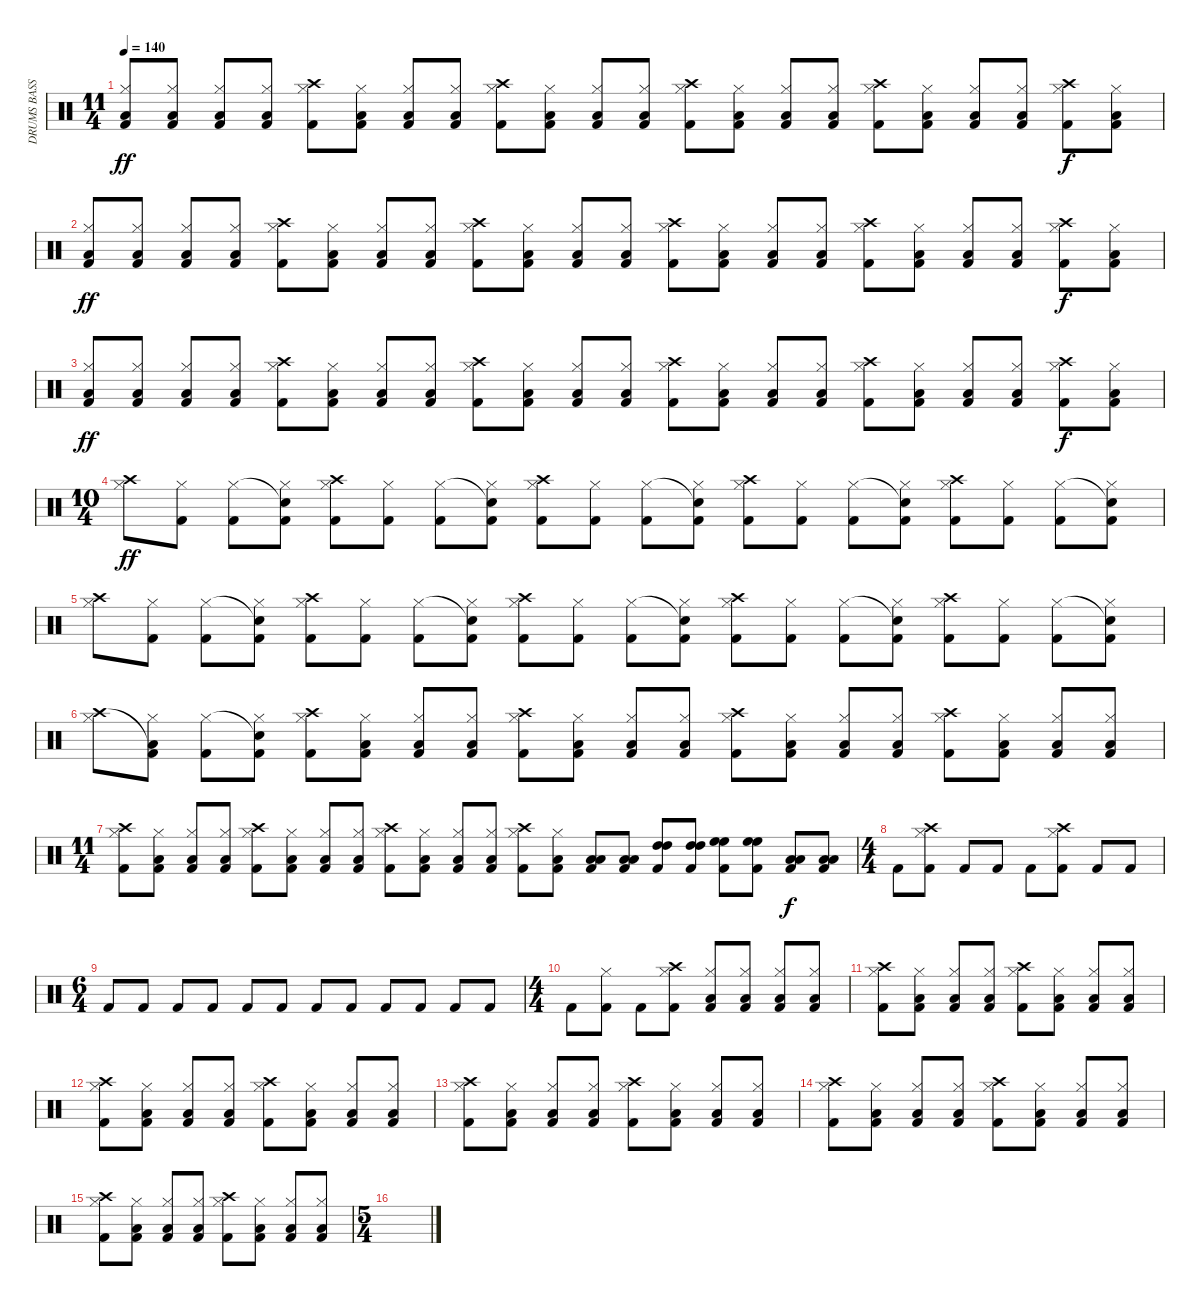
\track ("DRUMS BASS" "DRUMS BASS") {instrument percussion}
\staff {score}
\articulation defaults
\ts (11 4)
\tempo 140
\clef neutral
\ks c
("Low Tom (hit)" "Hi-Hat (closed)" "Kick (hit) 2").8{dy ff} ("Low Tom (hit)" "Hi-Hat (closed)" "Kick (hit) 2").8 ("Low Tom (hit)" "Hi-Hat (closed)" "Kick (hit) 2").8 ("Low Tom (hit)" "Hi-Hat (closed)" "Kick (hit) 2").8 ("Crash high (hit)" "Hi-Hat (closed)" "Kick (hit) 2").8 ("Low Tom (hit)" "Hi-Hat (closed)" "Kick (hit) 2").8 ("Low Tom (hit)" "Hi-Hat (closed)" "Kick (hit) 2").8 ("Low Tom (hit)" "Hi-Hat (closed)" "Kick (hit) 2").8 ("Crash high (hit)" "Hi-Hat (closed)" "Kick (hit) 2").8 ("Low Tom (hit)" "Hi-Hat (closed)" "Kick (hit) 2").8 ("Low Tom (hit)" "Hi-Hat (closed)" "Kick (hit) 2").8 ("Low Tom (hit)" "Hi-Hat (closed)" "Kick (hit) 2").8 ("Crash high (hit)" "Hi-Hat (closed)" "Kick (hit) 2").8 ("Low Tom (hit)" "Hi-Hat (closed)" "Kick (hit) 2").8 ("Low Tom (hit)" "Hi-Hat (closed)" "Kick (hit) 2").8 ("Low Tom (hit)" "Hi-Hat (closed)" "Kick (hit) 2").8 ("Crash high (hit)" "Hi-Hat (closed)" "Kick (hit) 2").8 ("Low Tom (hit)" "Hi-Hat (closed)" "Kick (hit) 2").8 ("Low Tom (hit)" "Hi-Hat (closed)" "Kick (hit) 2").8 ("Low Tom (hit)" "Hi-Hat (closed)" "Kick (hit) 2").8 ("Crash high (hit)" "Hi-Hat (closed)" "Kick (hit) 2").8{dy f} ("Low Tom (hit)" "Hi-Hat (closed)" "Kick (hit) 2").8 |
("Low Tom (hit)" "Hi-Hat (closed)" "Kick (hit) 2").8{dy ff} ("Low Tom (hit)" "Hi-Hat (closed)" "Kick (hit) 2").8 ("Low Tom (hit)" "Hi-Hat (closed)" "Kick (hit) 2").8 ("Low Tom (hit)" "Hi-Hat (closed)" "Kick (hit) 2").8 ("Crash high (hit)" "Hi-Hat (closed)" "Kick (hit) 2").8 ("Low Tom (hit)" "Hi-Hat (closed)" "Kick (hit) 2").8 ("Low Tom (hit)" "Hi-Hat (closed)" "Kick (hit) 2").8 ("Low Tom (hit)" "Hi-Hat (closed)" "Kick (hit) 2").8 ("Crash high (hit)" "Hi-Hat (closed)" "Kick (hit) 2").8 ("Low Tom (hit)" "Hi-Hat (closed)" "Kick (hit) 2").8 ("Low Tom (hit)" "Hi-Hat (closed)" "Kick (hit) 2").8 ("Low Tom (hit)" "Hi-Hat (closed)" "Kick (hit) 2").8 ("Crash high (hit)" "Hi-Hat (closed)" "Kick (hit) 2").8 ("Low Tom (hit)" "Hi-Hat (closed)" "Kick (hit) 2").8 ("Low Tom (hit)" "Hi-Hat (closed)" "Kick (hit) 2").8 ("Low Tom (hit)" "Hi-Hat (closed)" "Kick (hit) 2").8 ("Crash high (hit)" "Hi-Hat (closed)" "Kick (hit) 2").8 ("Low Tom (hit)" "Hi-Hat (closed)" "Kick (hit) 2").8 ("Low Tom (hit)" "Hi-Hat (closed)" "Kick (hit) 2").8 ("Low Tom (hit)" "Hi-Hat (closed)" "Kick (hit) 2").8 ("Crash high (hit)" "Hi-Hat (closed)" "Kick (hit) 2").8{dy f} ("Low Tom (hit)" "Hi-Hat (closed)" "Kick (hit) 2").8 |
("Low Tom (hit)" "Hi-Hat (closed)" "Kick (hit) 2").8{dy ff} ("Low Tom (hit)" "Hi-Hat (closed)" "Kick (hit) 2").8 ("Low Tom (hit)" "Hi-Hat (closed)" "Kick (hit) 2").8 ("Low Tom (hit)" "Hi-Hat (closed)" "Kick (hit) 2").8 ("Crash high (hit)" "Hi-Hat (closed)" "Kick (hit) 2").8 ("Low Tom (hit)" "Hi-Hat (closed)" "Kick (hit) 2").8 ("Low Tom (hit)" "Hi-Hat (closed)" "Kick (hit) 2").8 ("Low Tom (hit)" "Hi-Hat (closed)" "Kick (hit) 2").8 ("Crash high (hit)" "Hi-Hat (closed)" "Kick (hit) 2").8 ("Low Tom (hit)" "Hi-Hat (closed)" "Kick (hit) 2").8 ("Low Tom (hit)" "Hi-Hat (closed)" "Kick (hit) 2").8 ("Low Tom (hit)" "Hi-Hat (closed)" "Kick (hit) 2").8 ("Crash high (hit)" "Hi-Hat (closed)" "Kick (hit) 2").8 ("Low Tom (hit)" "Hi-Hat (closed)" "Kick (hit) 2").8 ("Low Tom (hit)" "Hi-Hat (closed)" "Kick (hit) 2").8 ("Low Tom (hit)" "Hi-Hat (closed)" "Kick (hit) 2").8 ("Crash high (hit)" "Hi-Hat (closed)" "Kick (hit) 2").8 ("Low Tom (hit)" "Hi-Hat (closed)" "Kick (hit) 2").8 ("Low Tom (hit)" "Hi-Hat (closed)" "Kick (hit) 2").8 ("Low Tom (hit)" "Hi-Hat (closed)" "Kick (hit) 2").8 ("Crash high (hit)" "Hi-Hat (closed)" "Kick (hit) 2").8{dy f} ("Low Tom (hit)" "Hi-Hat (closed)" "Kick (hit) 2").8 |
\ts (10 4)
("Crash high (hit)" "Hi-Hat (closed)").8{dy ff} ("Hi-Hat (closed)" "Kick (hit) 2").8 ("Hi-Hat (closed)" "Kick (hit) 2").8 ("Snare (hit)"{t} "Hi-Hat (closed)" "Kick (hit) 2").8 ("Crash high (hit)" "Hi-Hat (closed)" "Kick (hit) 2").8 ("Hi-Hat (closed)" "Kick (hit) 2").8 ("Hi-Hat (closed)" "Kick (hit) 2").8 ("Snare (hit)"{t} "Hi-Hat (closed)" "Kick (hit) 2").8 ("Crash high (hit)" "Hi-Hat (closed)" "Kick (hit) 2").8 ("Hi-Hat (closed)" "Kick (hit) 2").8 ("Hi-Hat (closed)" "Kick (hit) 2").8 ("Snare (hit)"{t} "Hi-Hat (closed)" "Kick (hit) 2").8 ("Crash high (hit)" "Hi-Hat (closed)" "Kick (hit) 2").8 ("Hi-Hat (closed)" "Kick (hit) 2").8 ("Hi-Hat (closed)" "Kick (hit) 2").8 ("Snare (hit)"{t} "Hi-Hat (closed)" "Kick (hit) 2").8 ("Crash high (hit)" "Hi-Hat (closed)" "Kick (hit) 2").8 ("Hi-Hat (closed)" "Kick (hit) 2").8 ("Hi-Hat (closed)" "Kick (hit) 2").8 ("Snare (hit)"{t} "Hi-Hat (closed)" "Kick (hit) 2").8 |
("Crash high (hit)" "Hi-Hat (closed)").8 ("Hi-Hat (closed)" "Kick (hit) 2").8 ("Hi-Hat (closed)" "Kick (hit) 2").8 ("Snare (hit)"{t} "Hi-Hat (closed)" "Kick (hit) 2").8 ("Crash high (hit)" "Hi-Hat (closed)" "Kick (hit) 2").8 ("Hi-Hat (closed)" "Kick (hit) 2").8 ("Hi-Hat (closed)" "Kick (hit) 2").8 ("Snare (hit)"{t} "Hi-Hat (closed)" "Kick (hit) 2").8 ("Crash high (hit)" "Hi-Hat (closed)" "Kick (hit) 2").8 ("Hi-Hat (closed)" "Kick (hit) 2").8 ("Hi-Hat (closed)" "Kick (hit) 2").8 ("Snare (hit)"{t} "Hi-Hat (closed)" "Kick (hit) 2").8 ("Crash high (hit)" "Hi-Hat (closed)" "Kick (hit) 2").8 ("Hi-Hat (closed)" "Kick (hit) 2").8 ("Hi-Hat (closed)" "Kick (hit) 2").8 ("Snare (hit)"{t} "Hi-Hat (closed)" "Kick (hit) 2").8 ("Crash high (hit)" "Hi-Hat (closed)" "Kick (hit) 2").8 ("Hi-Hat (closed)" "Kick (hit) 2").8 ("Hi-Hat (closed)" "Kick (hit) 2").8 ("Snare (hit)"{t} "Hi-Hat (closed)" "Kick (hit) 2").8 |
("Crash high (hit)" "Hi-Hat (closed)").8 ("Low Tom (hit)"{t} "Hi-Hat (closed)" "Kick (hit) 2").8 ("Hi-Hat (closed)" "Kick (hit) 2").8 ("Snare (hit)"{t} "Hi-Hat (closed)" "Kick (hit) 2").8 ("Crash high (hit)" "Hi-Hat (closed)" "Kick (hit) 2").8 ("Low Tom (hit)" "Hi-Hat (closed)" "Kick (hit) 2").8 ("Low Tom (hit)" "Hi-Hat (closed)" "Kick (hit) 2").8 ("Low Tom (hit)" "Hi-Hat (closed)" "Kick (hit) 2").8 ("Crash high (hit)" "Hi-Hat (closed)" "Kick (hit) 2").8 ("Low Tom (hit)" "Hi-Hat (closed)" "Kick (hit) 2").8 ("Low Tom (hit)" "Hi-Hat (closed)" "Kick (hit) 2").8 ("Low Tom (hit)" "Hi-Hat (closed)" "Kick (hit) 2").8 ("Crash high (hit)" "Hi-Hat (closed)" "Kick (hit) 2").8 ("Low Tom (hit)" "Hi-Hat (closed)" "Kick (hit) 2").8 ("Low Tom (hit)" "Hi-Hat (closed)" "Kick (hit) 2").8 ("Low Tom (hit)" "Hi-Hat (closed)" "Kick (hit) 2").8 ("Crash high (hit)" "Hi-Hat (closed)" "Kick (hit) 2").8 ("Low Tom (hit)" "Hi-Hat (closed)" "Kick (hit) 2").8 ("Low Tom (hit)" "Hi-Hat (closed)" "Kick (hit) 2").8 ("Low Tom (hit)" "Hi-Hat (closed)" "Kick (hit) 2").8 |
\ts (11 4)
("Crash high (hit)" "Hi-Hat (closed)" "Kick (hit) 2").8 ("Low Tom (hit)" "Hi-Hat (closed)" "Kick (hit) 2").8 ("Low Tom (hit)" "Hi-Hat (closed)" "Kick (hit) 2").8 ("Low Tom (hit)" "Hi-Hat (closed)" "Kick (hit) 2").8 ("Crash high (hit)" "Hi-Hat (closed)" "Kick (hit) 2").8 ("Low Tom (hit)" "Hi-Hat (closed)" "Kick (hit) 2").8 ("Low Tom (hit)" "Hi-Hat (closed)" "Kick (hit) 2").8 ("Low Tom (hit)" "Hi-Hat (closed)" "Kick (hit) 2").8 ("Crash high (hit)" "Hi-Hat (closed)" "Kick (hit) 2").8 ("Low Tom (hit)" "Hi-Hat (closed)" "Kick (hit) 2").8 ("Low Tom (hit)" "Hi-Hat (closed)" "Kick (hit) 2").8 ("Low Tom (hit)" "Hi-Hat (closed)" "Kick (hit) 2").8 ("Crash high (hit)" "Hi-Hat (closed)" "Kick (hit) 2").8 ("Low Tom (hit)" "Hi-Hat (closed)" "Kick (hit) 2").8 ("Low Tom (hit)" "Low Tom (hit)" "Kick (hit) 2").8 ("Low Tom (hit)" "Low Tom (hit)" "Kick (hit) 2").8 ("High Tom (hit)" "High Tom (hit)" "Kick (hit) 2").8 ("High Tom (hit)" "High Tom (hit)" "Kick (hit) 2").8 ("High Floor Tom (hit)" "High Floor Tom (hit)" "Kick (hit) 2").8 ("High Floor Tom (hit)" "High Floor Tom (hit)" "Kick (hit) 2").8 ("Low Tom (hit)" "Low Tom (hit)" "Kick (hit) 2").8{dy f} ("Low Tom (hit)" "Low Tom (hit)" "Kick (hit) 2").8 |
\ts (4 4)
"Kick (hit) 2".8 ("Crash high (hit)" "Hi-Hat (closed)" "Kick (hit) 2").8 "Kick (hit) 2".8 "Kick (hit) 2".8 "Kick (hit) 2".8 ("Crash high (hit)" "Hi-Hat (closed)" "Kick (hit) 2").8 "Kick (hit) 2".8 "Kick (hit) 2".8 |
\ts (6 4)
"Kick (hit) 2".8 "Kick (hit) 2".8 "Kick (hit) 2".8 "Kick (hit) 2".8 "Kick (hit) 2".8 "Kick (hit) 2".8 "Kick (hit) 2".8 "Kick (hit) 2".8 "Kick (hit) 2".8 "Kick (hit) 2".8 "Kick (hit) 2".8 "Kick (hit) 2".8 |
\ts (4 4)
"Kick (hit) 2".8 ("Hi-Hat (closed)" "Kick (hit) 2").8 "Kick (hit) 2".8 ("Crash high (hit)" "Hi-Hat (closed)" "Kick (hit) 2").8 ("Low Tom (hit)" "Hi-Hat (closed)" "Kick (hit) 2").8 ("Low Tom (hit)" "Hi-Hat (closed)" "Kick (hit) 2").8 ("Low Tom (hit)" "Hi-Hat (closed)" "Kick (hit) 2").8 ("Low Tom (hit)" "Hi-Hat (closed)" "Kick (hit) 2").8 |
("Crash high (hit)" "Hi-Hat (closed)" "Kick (hit) 2").8 ("Low Tom (hit)" "Hi-Hat (closed)" "Kick (hit) 2").8 ("Low Tom (hit)" "Hi-Hat (closed)" "Kick (hit) 2").8 ("Low Tom (hit)" "Hi-Hat (closed)" "Kick (hit) 2").8 ("Crash high (hit)" "Hi-Hat (closed)" "Kick (hit) 2").8 ("Low Tom (hit)" "Hi-Hat (closed)" "Kick (hit) 2").8 ("Low Tom (hit)" "Hi-Hat (closed)" "Kick (hit) 2").8 ("Low Tom (hit)" "Hi-Hat (closed)" "Kick (hit) 2").8 |
("Crash high (hit)" "Hi-Hat (closed)" "Kick (hit) 2").8 ("Low Tom (hit)" "Hi-Hat (closed)" "Kick (hit) 2").8 ("Low Tom (hit)" "Hi-Hat (closed)" "Kick (hit) 2").8 ("Low Tom (hit)" "Hi-Hat (closed)" "Kick (hit) 2").8 ("Crash high (hit)" "Hi-Hat (closed)" "Kick (hit) 2").8 ("Low Tom (hit)" "Hi-Hat (closed)" "Kick (hit) 2").8 ("Low Tom (hit)" "Hi-Hat (closed)" "Kick (hit) 2").8 ("Low Tom (hit)" "Hi-Hat (closed)" "Kick (hit) 2").8 |
("Crash high (hit)" "Hi-Hat (closed)" "Kick (hit) 2").8 ("Low Tom (hit)" "Hi-Hat (closed)" "Kick (hit) 2").8 ("Low Tom (hit)" "Hi-Hat (closed)" "Kick (hit) 2").8 ("Low Tom (hit)" "Hi-Hat (closed)" "Kick (hit) 2").8 ("Crash high (hit)" "Hi-Hat (closed)" "Kick (hit) 2").8 ("Low Tom (hit)" "Hi-Hat (closed)" "Kick (hit) 2").8 ("Low Tom (hit)" "Hi-Hat (closed)" "Kick (hit) 2").8 ("Low Tom (hit)" "Hi-Hat (closed)" "Kick (hit) 2").8 |
("Crash high (hit)" "Hi-Hat (closed)" "Kick (hit) 2").8 ("Low Tom (hit)" "Hi-Hat (closed)" "Kick (hit) 2").8 ("Low Tom (hit)" "Hi-Hat (closed)" "Kick (hit) 2").8 ("Low Tom (hit)" "Hi-Hat (closed)" "Kick (hit) 2").8 ("Crash high (hit)" "Hi-Hat (closed)" "Kick (hit) 2").8 ("Low Tom (hit)" "Hi-Hat (closed)" "Kick (hit) 2").8 ("Low Tom (hit)" "Hi-Hat (closed)" "Kick (hit) 2").8 ("Low Tom (hit)" "Hi-Hat (closed)" "Kick (hit) 2").8 |
("Crash high (hit)" "Hi-Hat (closed)" "Kick (hit) 2").8 ("Low Tom (hit)" "Hi-Hat (closed)" "Kick (hit) 2").8 ("Low Tom (hit)" "Hi-Hat (closed)" "Kick (hit) 2").8 ("Low Tom (hit)" "Hi-Hat (closed)" "Kick (hit) 2").8 ("Crash high (hit)" "Hi-Hat (closed)" "Kick (hit) 2").8 ("Low Tom (hit)" "Hi-Hat (closed)" "Kick (hit) 2").8 ("Low Tom (hit)" "Hi-Hat (closed)" "Kick (hit) 2").8 ("Low Tom (hit)" "Hi-Hat (closed)" "Kick (hit) 2").8 |
\ts (5 4)
